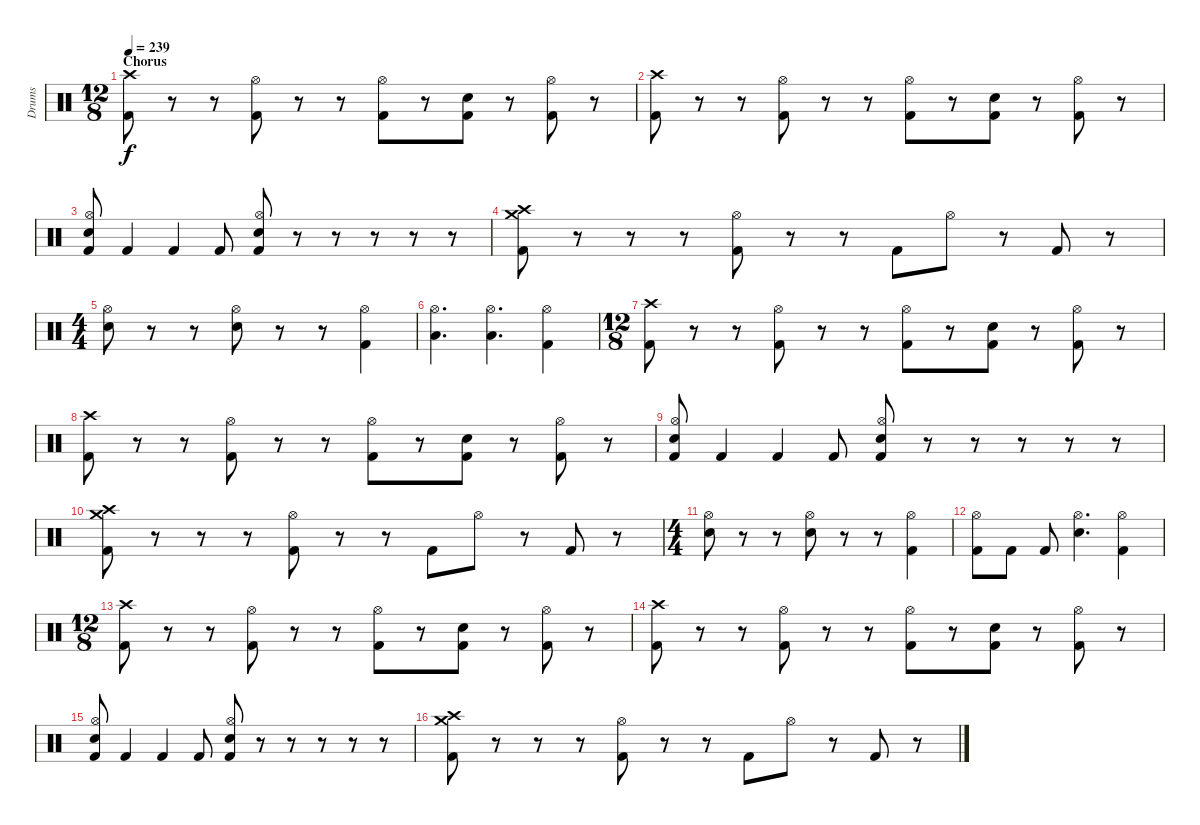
\track ("Drums" "Drums") {instrument percussion}
\staff {score}
\articulation defaults
\ts (12 8)
\section ("" "Chorus")
\tempo 239
\clef neutral
\ks c
("Crash high (hit)" "Kick (hit) 2").8{dy f} r.8 r.8 ("Hi-Hat (open)" "Kick (hit) 2").8 r.8 r.8 ("Hi-Hat (open)" "Kick (hit) 2").8 r.8 ("Electric Snare (hit)" "Kick (hit) 2").8 r.8 ("Hi-Hat (open)" "Kick (hit) 2").8 r.8 |
("Crash high (hit)" "Kick (hit) 2").8 r.8 r.8 ("Hi-Hat (open)" "Kick (hit) 2").8 r.8 r.8 ("Hi-Hat (open)" "Kick (hit) 2").8 r.8 ("Electric Snare (hit)" "Kick (hit) 2").8 r.8 ("Hi-Hat (open)" "Kick (hit) 2").8 r.8 |
("Hi-Hat (open)" "Electric Snare (hit)" "Kick (hit) 2").8 "Kick (hit) 2".4 "Kick (hit) 2".4 "Kick (hit) 2".8 ("Hi-Hat (open)" "Electric Snare (hit)" "Kick (hit) 2").8 r.8 r.8 r.8 r.8 r.8 |
("Crash high (hit)" "Crash medium (hit)" "Kick (hit) 2").8 r.8 r.8 r.8 ("Hi-Hat (open)" "Kick (hit) 2").8 r.8 r.8 "Kick (hit) 2".8 "Hi-Hat (open)".8 r.8 "Kick (hit) 2".8 r.8 |
\ts (4 4)
("Hi-Hat (open)" "Electric Snare (hit)").8 r.8 r.8 ("Hi-Hat (open)" "Electric Snare (hit)").8 r.8 r.8 ("Hi-Hat (open)" "Kick (hit) 2").4 |
("Hi-Hat (open)" "Low Tom (hit)").4{d} ("Hi-Hat (open)" "Low Tom (hit)").4{d} ("Hi-Hat (open)" "Kick (hit) 2").4 |
\ts (12 8)
("Crash high (hit)" "Kick (hit) 2").8 r.8 r.8 ("Hi-Hat (open)" "Kick (hit) 2").8 r.8 r.8 ("Hi-Hat (open)" "Kick (hit) 2").8 r.8 ("Electric Snare (hit)" "Kick (hit) 2").8 r.8 ("Hi-Hat (open)" "Kick (hit) 2").8 r.8 |
("Crash high (hit)" "Kick (hit) 2").8 r.8 r.8 ("Hi-Hat (open)" "Kick (hit) 2").8 r.8 r.8 ("Hi-Hat (open)" "Kick (hit) 2").8 r.8 ("Electric Snare (hit)" "Kick (hit) 2").8 r.8 ("Hi-Hat (open)" "Kick (hit) 2").8 r.8 |
("Hi-Hat (open)" "Electric Snare (hit)" "Kick (hit) 2").8 "Kick (hit) 2".4 "Kick (hit) 2".4 "Kick (hit) 2".8 ("Hi-Hat (open)" "Electric Snare (hit)" "Kick (hit) 2").8 r.8 r.8 r.8 r.8 r.8 |
("Crash high (hit)" "Crash medium (hit)" "Kick (hit) 2").8 r.8 r.8 r.8 ("Hi-Hat (open)" "Kick (hit) 2").8 r.8 r.8 "Kick (hit) 2".8 "Hi-Hat (open)".8 r.8 "Kick (hit) 2".8 r.8 |
\ts (4 4)
("Hi-Hat (open)" "Electric Snare (hit)").8 r.8 r.8 ("Hi-Hat (open)" "Electric Snare (hit)").8 r.8 r.8 ("Hi-Hat (open)" "Kick (hit) 2").4 |
("Hi-Hat (open)" "Kick (hit) 2").8 "Kick (hit) 2".8 "Kick (hit) 2".8 ("Hi-Hat (open)" "Electric Snare (hit)").4{d} ("Hi-Hat (open)" "Kick (hit) 2").4 |
\ts (12 8)
("Crash high (hit)" "Kick (hit) 2").8 r.8 r.8 ("Hi-Hat (open)" "Kick (hit) 2").8 r.8 r.8 ("Hi-Hat (open)" "Kick (hit) 2").8 r.8 ("Electric Snare (hit)" "Kick (hit) 2").8 r.8 ("Hi-Hat (open)" "Kick (hit) 2").8 r.8 |
("Crash high (hit)" "Kick (hit) 2").8 r.8 r.8 ("Hi-Hat (open)" "Kick (hit) 2").8 r.8 r.8 ("Hi-Hat (open)" "Kick (hit) 2").8 r.8 ("Electric Snare (hit)" "Kick (hit) 2").8 r.8 ("Hi-Hat (open)" "Kick (hit) 2").8 r.8 |
("Hi-Hat (open)" "Electric Snare (hit)" "Kick (hit) 2").8 "Kick (hit) 2".4 "Kick (hit) 2".4 "Kick (hit) 2".8 ("Hi-Hat (open)" "Electric Snare (hit)" "Kick (hit) 2").8 r.8 r.8 r.8 r.8 r.8 |
("Crash high (hit)" "Crash medium (hit)" "Kick (hit) 2").8 r.8 r.8 r.8 ("Hi-Hat (open)" "Kick (hit) 2").8 r.8 r.8 "Kick (hit) 2".8 "Hi-Hat (open)".8 r.8 "Kick (hit) 2".8 r.8
